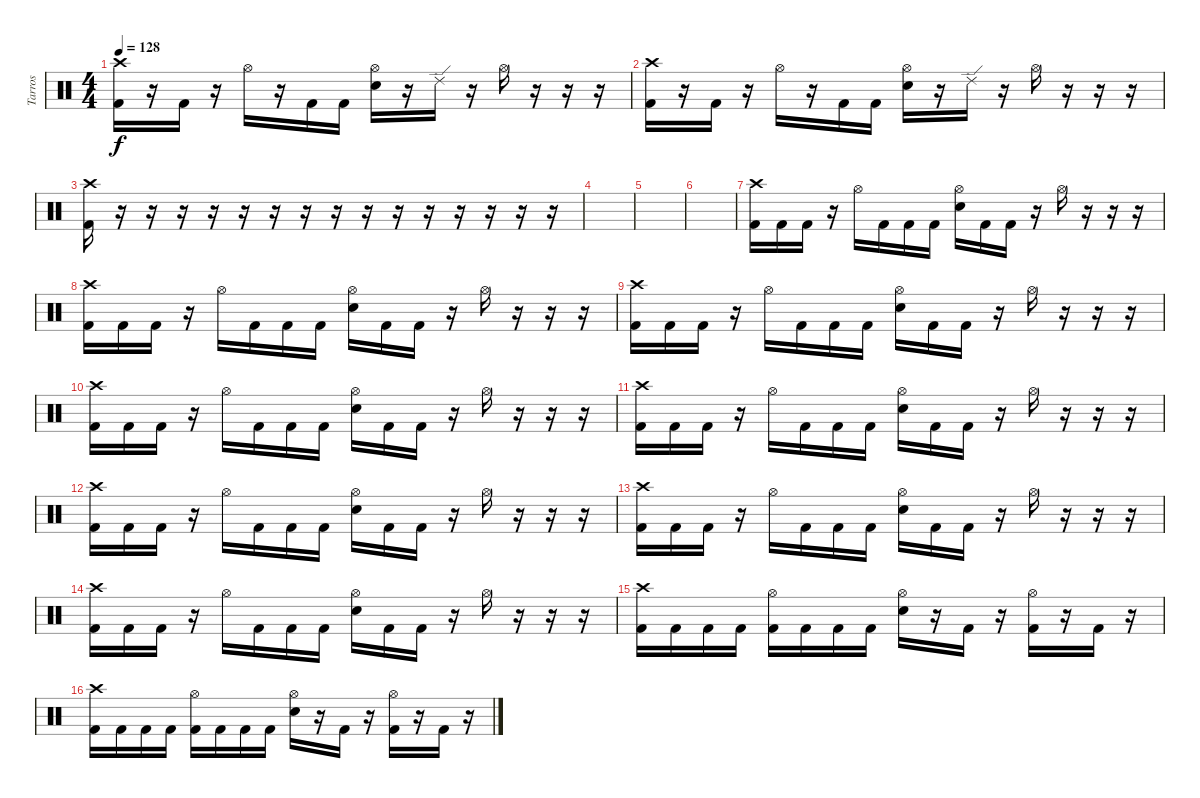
\track ("Tarros" "Tarros") {instrument percussion}
\staff {score}
\articulation defaults
\ts (4 4)
\tempo 128
\clef neutral
\ks c
("Crash high (hit)" "Kick (hit) 2").16{dy f} r.16 "Kick (hit) 2".16 r.16 "Hi-Hat (open)".16 r.16 "Kick (hit) 2".16 "Kick (hit) 2".16 ("Hi-Hat (open)" "Electric Snare (hit)").16 r.16 "Ride (edge) 2".16 r.16 "Hi-Hat (open)".16 r.16 r.16 r.16 |
("Crash high (hit)" "Kick (hit) 2").16 r.16 "Kick (hit) 2".16 r.16 "Hi-Hat (open)".16 r.16 "Kick (hit) 2".16 "Kick (hit) 2".16 ("Hi-Hat (open)" "Electric Snare (hit)").16 r.16 "Ride (edge) 2".16 r.16 "Hi-Hat (open)".16 r.16 r.16 r.16 |
("Crash high (hit)" "Kick (hit) 2").16 r.16 r.16 r.16 r.16 r.16 r.16 r.16 r.16 r.16 r.16 r.16 r.16 r.16 r.16 r.16 |
|
|
|
("Crash high (hit)" "Kick (hit) 2").16 "Kick (hit) 2".16 "Kick (hit) 2".16 r.16 "Hi-Hat (open)".16 "Kick (hit) 2".16 "Kick (hit) 2".16 "Kick (hit) 2".16 ("Hi-Hat (open)" "Electric Snare (hit)").16 "Kick (hit) 2".16 "Kick (hit) 2".16 r.16 "Hi-Hat (open)".16 r.16 r.16 r.16 |
("Crash high (hit)" "Kick (hit) 2").16 "Kick (hit) 2".16 "Kick (hit) 2".16 r.16 "Hi-Hat (open)".16 "Kick (hit) 2".16 "Kick (hit) 2".16 "Kick (hit) 2".16 ("Hi-Hat (open)" "Electric Snare (hit)").16 "Kick (hit) 2".16 "Kick (hit) 2".16 r.16 "Hi-Hat (open)".16 r.16 r.16 r.16 |
("Crash high (hit)" "Kick (hit) 2").16 "Kick (hit) 2".16 "Kick (hit) 2".16 r.16 "Hi-Hat (open)".16 "Kick (hit) 2".16 "Kick (hit) 2".16 "Kick (hit) 2".16 ("Hi-Hat (open)" "Electric Snare (hit)").16 "Kick (hit) 2".16 "Kick (hit) 2".16 r.16 "Hi-Hat (open)".16 r.16 r.16 r.16 |
("Crash high (hit)" "Kick (hit) 2").16 "Kick (hit) 2".16 "Kick (hit) 2".16 r.16 "Hi-Hat (open)".16 "Kick (hit) 2".16 "Kick (hit) 2".16 "Kick (hit) 2".16 ("Hi-Hat (open)" "Electric Snare (hit)").16 "Kick (hit) 2".16 "Kick (hit) 2".16 r.16 "Hi-Hat (open)".16 r.16 r.16 r.16 |
("Crash high (hit)" "Kick (hit) 2").16 "Kick (hit) 2".16 "Kick (hit) 2".16 r.16 "Hi-Hat (open)".16 "Kick (hit) 2".16 "Kick (hit) 2".16 "Kick (hit) 2".16 ("Hi-Hat (open)" "Electric Snare (hit)").16 "Kick (hit) 2".16 "Kick (hit) 2".16 r.16 "Hi-Hat (open)".16 r.16 r.16 r.16 |
("Crash high (hit)" "Kick (hit) 2").16 "Kick (hit) 2".16 "Kick (hit) 2".16 r.16 "Hi-Hat (open)".16 "Kick (hit) 2".16 "Kick (hit) 2".16 "Kick (hit) 2".16 ("Hi-Hat (open)" "Electric Snare (hit)").16 "Kick (hit) 2".16 "Kick (hit) 2".16 r.16 "Hi-Hat (open)".16 r.16 r.16 r.16 |
("Crash high (hit)" "Kick (hit) 2").16 "Kick (hit) 2".16 "Kick (hit) 2".16 r.16 "Hi-Hat (open)".16 "Kick (hit) 2".16 "Kick (hit) 2".16 "Kick (hit) 2".16 ("Hi-Hat (open)" "Electric Snare (hit)").16 "Kick (hit) 2".16 "Kick (hit) 2".16 r.16 "Hi-Hat (open)".16 r.16 r.16 r.16 |
("Crash high (hit)" "Kick (hit) 2").16 "Kick (hit) 2".16 "Kick (hit) 2".16 r.16 "Hi-Hat (open)".16 "Kick (hit) 2".16 "Kick (hit) 2".16 "Kick (hit) 2".16 ("Hi-Hat (open)" "Electric Snare (hit)").16 "Kick (hit) 2".16 "Kick (hit) 2".16 r.16 "Hi-Hat (open)".16 r.16 r.16 r.16 |
("Crash high (hit)" "Kick (hit) 2").16 "Kick (hit) 2".16 "Kick (hit) 2".16 "Kick (hit) 2".16 ("Hi-Hat (open)" "Kick (hit) 2").16 "Kick (hit) 2".16 "Kick (hit) 2".16 "Kick (hit) 2".16 ("Hi-Hat (open)" "Electric Snare (hit)").16 r.16 "Kick (hit) 2".16 r.16 ("Hi-Hat (open)" "Kick (hit) 2").16 r.16 "Kick (hit) 2".16 r.16 |
("Crash high (hit)" "Kick (hit) 2").16 "Kick (hit) 2".16 "Kick (hit) 2".16 "Kick (hit) 2".16 ("Hi-Hat (open)" "Kick (hit) 2").16 "Kick (hit) 2".16 "Kick (hit) 2".16 "Kick (hit) 2".16 ("Hi-Hat (open)" "Electric Snare (hit)").16 r.16 "Kick (hit) 2".16 r.16 ("Hi-Hat (open)" "Kick (hit) 2").16 r.16 "Kick (hit) 2".16 r.16
